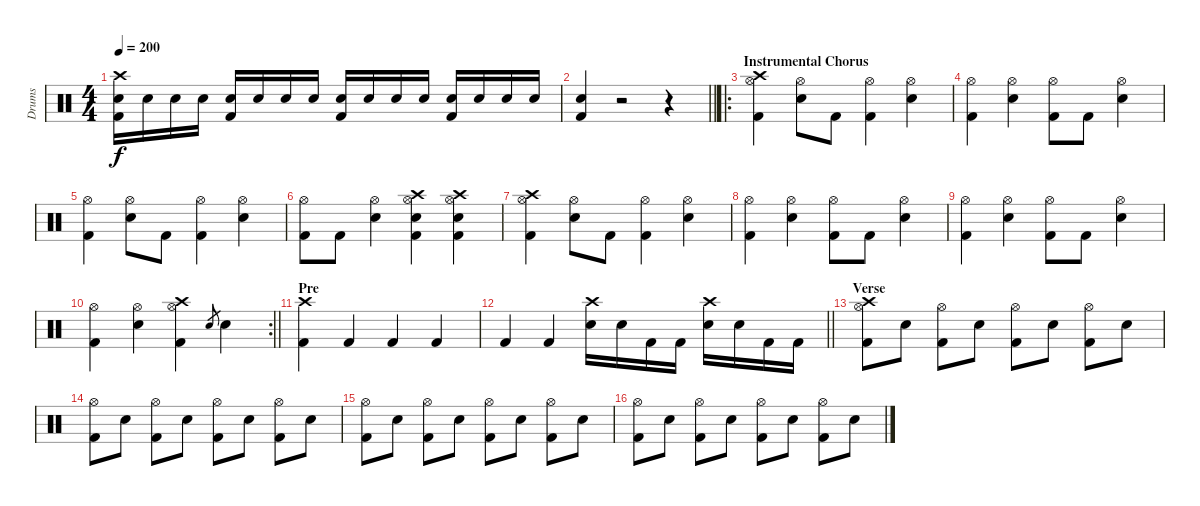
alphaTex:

\track ("Drums" "Drums") {instrument percussion}
\staff {score}
\articulation defaults
\ts (4 4)
\tempo 200
\clef neutral
\ks c
("Crash high (hit)" "Snare (hit) 2" "Kick (hit) 2").16{dy f} "Snare (hit) 2".16 "Snare (hit) 2".16 "Snare (hit) 2".16 ("Snare (hit) 2" "Kick (hit) 2").16 "Snare (hit) 2".16 "Snare (hit) 2".16 "Snare (hit) 2".16 ("Snare (hit) 2" "Kick (hit) 2").16 "Snare (hit) 2".16 "Snare (hit) 2".16 "Snare (hit) 2".16 ("Snare (hit) 2" "Kick (hit) 2").16 "Snare (hit) 2".16 "Snare (hit) 2".16 "Snare (hit) 2".16 |
\barLineRight lightlight
("Snare (hit) 2" "Kick (hit) 2").4 r.2 r.4 |
\ro
\section ("" "Instrumental Chorus")
("Crash high (hit)" "Hi-Hat (open)" "Kick (hit) 2").4 ("Hi-Hat (open)" "Snare (hit) 2").8 "Kick (hit) 2".8 ("Hi-Hat (open)" "Kick (hit) 2").4 ("Hi-Hat (open)" "Snare (hit) 2").4 |
("Hi-Hat (open)" "Kick (hit) 2").4 ("Hi-Hat (open)" "Snare (hit) 2").4 ("Hi-Hat (open)" "Kick (hit) 2").8 "Kick (hit) 2".8 ("Hi-Hat (open)" "Snare (hit) 2").4 |
("Hi-Hat (open)" "Kick (hit) 2").4 ("Hi-Hat (open)" "Snare (hit) 2").8 "Kick (hit) 2".8 ("Hi-Hat (open)" "Kick (hit) 2").4 ("Hi-Hat (open)" "Snare (hit) 2").4 |
("Hi-Hat (open)" "Kick (hit) 2").8 "Kick (hit) 2".8 ("Hi-Hat (open)" "Snare (hit) 2").4 ("Crash high (hit)" "Hi-Hat (open)" "Snare (hit) 2" "Kick (hit) 2").4 ("Crash high (hit)" "Hi-Hat (open)" "Snare (hit) 2" "Kick (hit) 2").4 |
("Crash high (hit)" "Hi-Hat (open)" "Kick (hit) 2").4 ("Hi-Hat (open)" "Snare (hit) 2").8 "Kick (hit) 2".8 ("Hi-Hat (open)" "Kick (hit) 2").4 ("Hi-Hat (open)" "Snare (hit) 2").4 |
("Hi-Hat (open)" "Kick (hit) 2").4 ("Hi-Hat (open)" "Snare (hit) 2").4 ("Hi-Hat (open)" "Kick (hit) 2").8 "Kick (hit) 2".8 ("Hi-Hat (open)" "Snare (hit) 2").4 |
("Hi-Hat (open)" "Kick (hit) 2").4 ("Hi-Hat (open)" "Snare (hit) 2").4 ("Hi-Hat (open)" "Kick (hit) 2").8 "Kick (hit) 2".8 ("Hi-Hat (open)" "Snare (hit) 2").4 |
\rc 2
\barLineRight lightlight
("Hi-Hat (open)" "Kick (hit) 2").4 ("Hi-Hat (open)" "Snare (hit) 2").4 ("Crash high (hit)" "Hi-Hat (open)" "Kick (hit) 2").4 "Snare (hit) 2".8{gr} "Snare (hit) 2".4 |
\section ("" "Pre")
("Crash high (hit)" "Kick (hit) 2").4 "Kick (hit) 2".4 "Kick (hit) 2".4 "Kick (hit) 2".4 |
\barLineRight lightlight "Kick (hit) 2".4 "Kick (hit) 2".4
("Crash high (hit)" "Snare (hit) 2").16 "Snare (hit) 2".16 "Kick (hit) 2".16 "Kick (hit) 2".16 ("Crash high (hit)" "Snare (hit) 2").16 "Snare (hit) 2".16 "Kick (hit) 2".16 "Kick (hit) 2".16 |
\section ("" "Verse")
("Crash high (hit)" "Hi-Hat (open)" "Kick (hit) 2").8 "Snare (hit) 2".8 ("Hi-Hat (open)" "Kick (hit) 2").8 "Snare (hit) 2".8 ("Hi-Hat (open)" "Kick (hit) 2").8 "Snare (hit) 2".8 ("Hi-Hat (open)" "Kick (hit) 2").8 "Snare (hit) 2".8 |
("Hi-Hat (open)" "Kick (hit) 2").8 "Snare (hit) 2".8 ("Hi-Hat (open)" "Kick (hit) 2").8 "Snare (hit) 2".8 ("Hi-Hat (open)" "Kick (hit) 2").8 "Snare (hit) 2".8 ("Hi-Hat (open)" "Kick (hit) 2").8 "Snare (hit) 2".8 |
("Hi-Hat (open)" "Kick (hit) 2").8 "Snare (hit) 2".8 ("Hi-Hat (open)" "Kick (hit) 2").8 "Snare (hit) 2".8 ("Hi-Hat (open)" "Kick (hit) 2").8 "Snare (hit) 2".8 ("Hi-Hat (open)" "Kick (hit) 2").8 "Snare (hit) 2".8 |
("Hi-Hat (open)" "Kick (hit) 2").8 "Snare (hit) 2".8 ("Hi-Hat (open)" "Kick (hit) 2").8 "Snare (hit) 2".8 ("Hi-Hat (open)" "Kick (hit) 2").8 "Snare (hit) 2".8 ("Hi-Hat (open)" "Kick (hit) 2").8 "Snare (hit) 2".8
